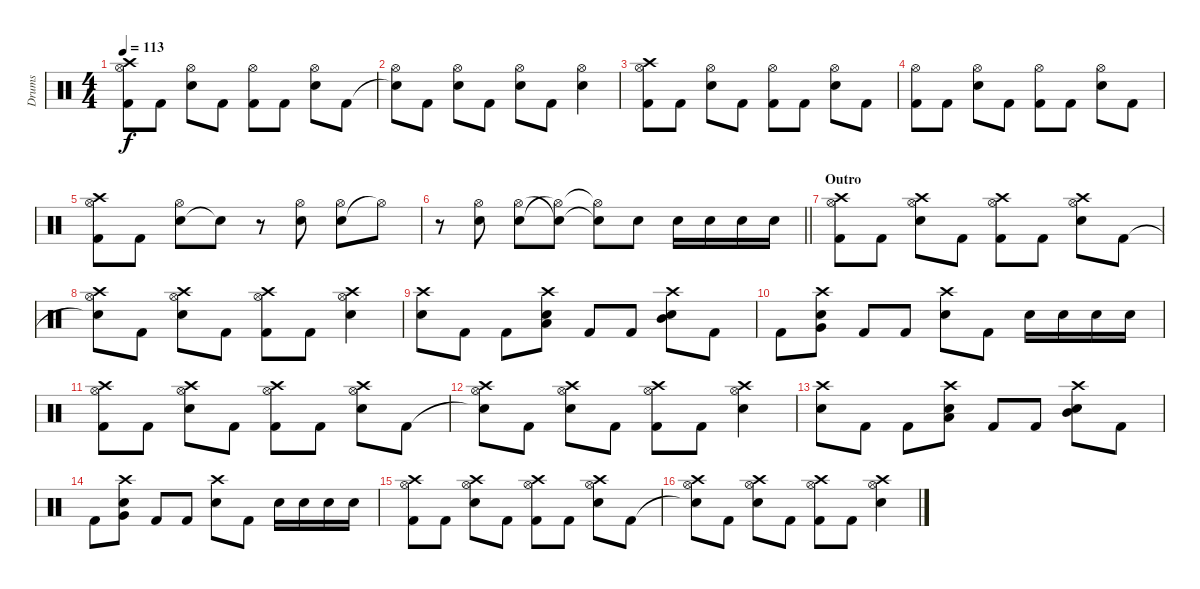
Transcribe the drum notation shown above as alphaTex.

\track ("Drums" "Drums") {instrument percussion}
\staff {score}
\articulation defaults
\ts (4 4)
\tempo 113
\clef neutral
\ks c
("Kick (hit) 2" "Hi-Hat (open)" "Crash high (hit)").8{dy f} "Kick (hit) 2".8 ("Electric Snare (hit)" "Hi-Hat (open)").8 "Kick (hit) 2".8 ("Kick (hit) 2" "Hi-Hat (open)").8 "Kick (hit) 2".8 ("Electric Snare (hit)" "Hi-Hat (open)").8 "Kick (hit) 2".8 |
("Snare (hit)"{t} "Hi-Hat (open)").8 "Kick (hit) 2".8 ("Electric Snare (hit)" "Hi-Hat (open)").8 "Kick (hit) 2".8 ("Electric Snare (hit)" "Hi-Hat (open)").8 "Kick (hit) 2".8 ("Electric Snare (hit)" "Hi-Hat (open)").4 |
("Kick (hit) 2" "Hi-Hat (open)" "Crash high (hit)").8 "Kick (hit) 2".8 ("Electric Snare (hit)" "Hi-Hat (open)").8 "Kick (hit) 2".8 ("Kick (hit) 2" "Hi-Hat (open)").8 "Kick (hit) 2".8 ("Electric Snare (hit)" "Hi-Hat (open)").8 "Kick (hit) 2".8 |
("Kick (hit) 2" "Hi-Hat (open)").8 "Kick (hit) 2".8 ("Electric Snare (hit)" "Hi-Hat (open)").8 "Kick (hit) 2".8 ("Kick (hit) 2" "Hi-Hat (open)").8 "Kick (hit) 2".8 ("Electric Snare (hit)" "Hi-Hat (open)").8 "Kick (hit) 2".8 |
("Kick (hit) 2" "Crash high (hit)" "Hi-Hat (open)").8 "Kick (hit) 2".8 ("Electric Snare (hit)" "Hi-Hat (open)").8 "Snare (hit)"{t}.8 r.8 ("Electric Snare (hit)" "Hi-Hat (open)").8 ("Electric Snare (hit)" "Hi-Hat (open)").8 "Hi-Hat (open)"{t}.8 |
\barLineRight lightlight
r.8 ("Electric Snare (hit)" "Hi-Hat (open)").8 ("Electric Snare (hit)" "Hi-Hat (open)").8 ("Hi-Hat (open)"{t} "Snare (hit)"{t}).8 ("Hi-Hat (open)"{t} "Snare (hit)"{t}).8 "Electric Snare (hit)".8 "Electric Snare (hit)".16 "Electric Snare (hit)".16 "Electric Snare (hit)".16 "Electric Snare (hit)".16 |
\section ("" "Outro")
("Kick (hit) 2" "Hi-Hat (open)" "Crash high (hit)").8 "Kick (hit) 2".8 ("Electric Snare (hit)" "Hi-Hat (open)" "Crash high (hit)").8 "Kick (hit) 2".8 ("Kick (hit) 2" "Hi-Hat (open)" "Crash high (hit)").8 "Kick (hit) 2".8 ("Electric Snare (hit)" "Hi-Hat (open)" "Crash high (hit)").8 "Kick (hit) 2".8 |
("Snare (hit)"{t} "Hi-Hat (open)" "Crash high (hit)").8 "Kick (hit) 2".8 ("Electric Snare (hit)" "Hi-Hat (open)" "Crash high (hit)").8 "Kick (hit) 2".8 ("Kick (hit) 2" "Hi-Hat (open)" "Crash high (hit)").8 "Kick (hit) 2".8 ("Electric Snare (hit)" "Hi-Hat (open)" "Crash high (hit)").4 |
("Electric Snare (hit)" "Crash high (hit)").8 "Kick (hit) 2".8 "Kick (hit) 2".8 ("Electric Snare (hit)" "Low Tom (hit)" "Crash high (hit)").8 "Kick (hit) 2".8 "Kick (hit) 2".8 ("Electric Snare (hit)" "Mid Tom (hit)" "Crash high (hit)").8 "Kick (hit) 2".8 |
"Kick (hit) 2".8 ("Electric Snare (hit)" "Very Low Tom (hit)" "Crash high (hit)").8 "Kick (hit) 2".8 "Kick (hit) 2".8 ("Electric Snare (hit)" "Crash high (hit)").8 "Kick (hit) 2".8 "Electric Snare (hit)".16 "Electric Snare (hit)".16 "Electric Snare (hit)".16 "Electric Snare (hit)".16 |
("Kick (hit) 2" "Hi-Hat (open)" "Crash high (hit)").8 "Kick (hit) 2".8 ("Electric Snare (hit)" "Hi-Hat (open)" "Crash high (hit)").8 "Kick (hit) 2".8 ("Kick (hit) 2" "Hi-Hat (open)" "Crash high (hit)").8 "Kick (hit) 2".8 ("Electric Snare (hit)" "Hi-Hat (open)" "Crash high (hit)").8 "Kick (hit) 2".8 |
("Snare (hit)"{t} "Hi-Hat (open)" "Crash high (hit)").8 "Kick (hit) 2".8 ("Electric Snare (hit)" "Hi-Hat (open)" "Crash high (hit)").8 "Kick (hit) 2".8 ("Kick (hit) 2" "Hi-Hat (open)" "Crash high (hit)").8 "Kick (hit) 2".8 ("Electric Snare (hit)" "Hi-Hat (open)" "Crash high (hit)").4 |
("Electric Snare (hit)" "Crash high (hit)").8 "Kick (hit) 2".8 "Kick (hit) 2".8 ("Electric Snare (hit)" "Low Tom (hit)" "Crash high (hit)").8 "Kick (hit) 2".8 "Kick (hit) 2".8 ("Electric Snare (hit)" "Mid Tom (hit)" "Crash high (hit)").8 "Kick (hit) 2".8 |
"Kick (hit) 2".8 ("Electric Snare (hit)" "Very Low Tom (hit)" "Crash high (hit)").8 "Kick (hit) 2".8 "Kick (hit) 2".8 ("Electric Snare (hit)" "Crash high (hit)").8 "Kick (hit) 2".8 "Electric Snare (hit)".16 "Electric Snare (hit)".16 "Electric Snare (hit)".16 "Electric Snare (hit)".16 |
("Kick (hit) 2" "Hi-Hat (open)" "Crash high (hit)").8 "Kick (hit) 2".8 ("Electric Snare (hit)" "Hi-Hat (open)" "Crash high (hit)").8 "Kick (hit) 2".8 ("Kick (hit) 2" "Hi-Hat (open)" "Crash high (hit)").8 "Kick (hit) 2".8 ("Electric Snare (hit)" "Hi-Hat (open)" "Crash high (hit)").8 "Kick (hit) 2".8 |
("Snare (hit)"{t} "Hi-Hat (open)" "Crash high (hit)").8 "Kick (hit) 2".8 ("Electric Snare (hit)" "Hi-Hat (open)" "Crash high (hit)").8 "Kick (hit) 2".8 ("Kick (hit) 2" "Hi-Hat (open)" "Crash high (hit)").8 "Kick (hit) 2".8 ("Electric Snare (hit)" "Hi-Hat (open)" "Crash high (hit)").4
